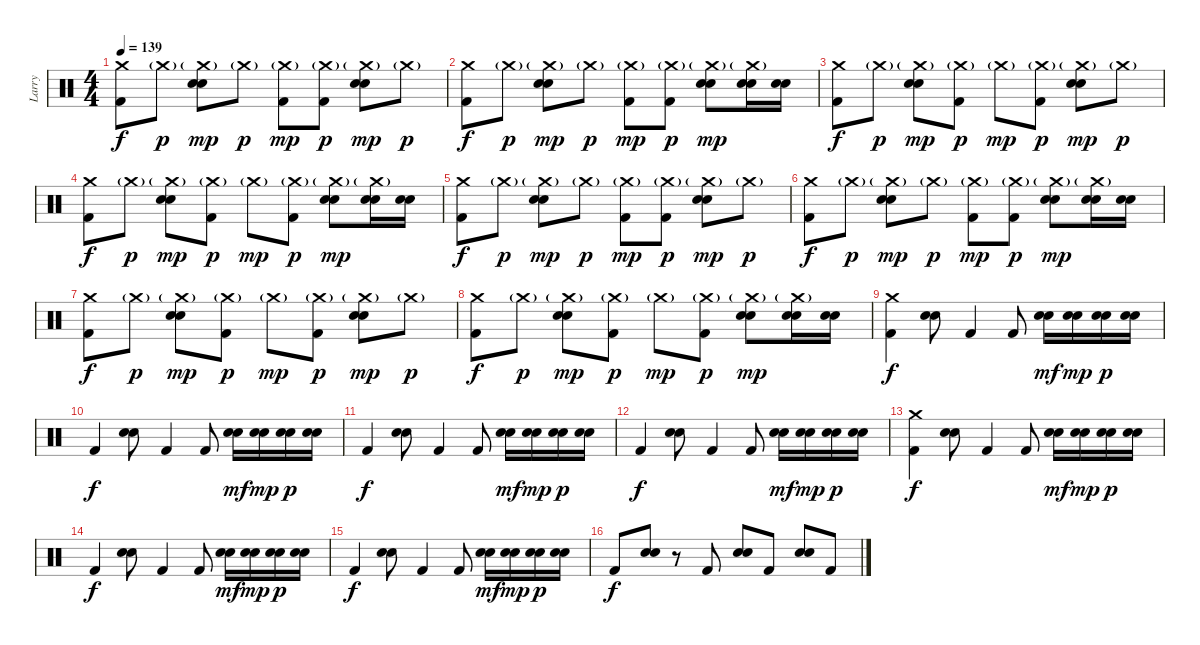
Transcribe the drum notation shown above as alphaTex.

\track ("Larry" "Larry") {instrument percussion}
\staff {score}
\articulation defaults
\ts (4 4)
\tempo 139
\clef neutral
\ks c
("Crash medium (hit)" "Kick (hit) 2").8{dy f} "Crash medium (hit)"{g}.8{dy p} ("Crash medium (hit)"{g} "Snare (hit) 2" "Electric Snare (hit)").8{dy mp} "Crash medium (hit)"{g}.8{dy p} ("Crash medium (hit)"{g} "Kick (hit) 2").8{dy mp} ("Crash medium (hit)"{g} "Kick (hit) 2").8{dy p} ("Crash medium (hit)"{g} "Snare (hit) 2" "Electric Snare (hit)").8{dy mp} "Crash medium (hit)"{g}.8{dy p} |
("Crash medium (hit)" "Kick (hit) 2").8{dy f} "Crash medium (hit)"{g}.8{dy p} ("Crash medium (hit)"{g} "Snare (hit) 2" "Electric Snare (hit)").8{dy mp} "Crash medium (hit)"{g}.8{dy p} ("Crash medium (hit)"{g} "Kick (hit) 2").8{dy mp} ("Crash medium (hit)"{g} "Kick (hit) 2").8{dy p} ("Crash medium (hit)"{g} "Snare (hit) 2" "Electric Snare (hit)").8{dy mp} ("Crash medium (hit)"{g} "Snare (hit) 2" "Electric Snare (hit)").16 ("Snare (hit) 2" "Electric Snare (hit)").16 |
("Crash medium (hit)" "Kick (hit) 2").8{dy f} "Crash medium (hit)"{g}.8{dy p} ("Crash medium (hit)"{g} "Snare (hit) 2" "Electric Snare (hit)").8{dy mp} ("Crash medium (hit)"{g} "Kick (hit) 2").8{dy p} "Crash medium (hit)"{g}.8{dy mp} ("Crash medium (hit)"{g} "Kick (hit) 2").8{dy p} ("Crash medium (hit)"{g} "Snare (hit) 2" "Electric Snare (hit)").8{dy mp} "Crash medium (hit)"{g}.8{dy p} |
("Crash medium (hit)" "Kick (hit) 2").8{dy f} "Crash medium (hit)"{g}.8{dy p} ("Crash medium (hit)"{g} "Snare (hit) 2" "Electric Snare (hit)").8{dy mp} ("Crash medium (hit)"{g} "Kick (hit) 2").8{dy p} "Crash medium (hit)"{g}.8{dy mp} ("Crash medium (hit)"{g} "Kick (hit) 2").8{dy p} ("Crash medium (hit)"{g} "Snare (hit) 2" "Electric Snare (hit)").8{dy mp} ("Crash medium (hit)"{g} "Snare (hit) 2" "Electric Snare (hit)").16 ("Snare (hit) 2" "Electric Snare (hit)").16 |
("Crash medium (hit)" "Kick (hit) 2").8{dy f} "Crash medium (hit)"{g}.8{dy p} ("Crash medium (hit)"{g} "Snare (hit) 2" "Electric Snare (hit)").8{dy mp} "Crash medium (hit)"{g}.8{dy p} ("Crash medium (hit)"{g} "Kick (hit) 2").8{dy mp} ("Crash medium (hit)"{g} "Kick (hit) 2").8{dy p} ("Crash medium (hit)"{g} "Snare (hit) 2" "Electric Snare (hit)").8{dy mp} "Crash medium (hit)"{g}.8{dy p} |
("Crash medium (hit)" "Kick (hit) 2").8{dy f} "Crash medium (hit)"{g}.8{dy p} ("Crash medium (hit)"{g} "Snare (hit) 2" "Electric Snare (hit)").8{dy mp} "Crash medium (hit)"{g}.8{dy p} ("Crash medium (hit)"{g} "Kick (hit) 2").8{dy mp} ("Crash medium (hit)"{g} "Kick (hit) 2").8{dy p} ("Crash medium (hit)"{g} "Snare (hit) 2" "Electric Snare (hit)").8{dy mp} ("Crash medium (hit)"{g} "Snare (hit) 2" "Electric Snare (hit)").16 ("Snare (hit) 2" "Electric Snare (hit)").16 |
("Crash medium (hit)" "Kick (hit) 2").8{dy f} "Crash medium (hit)"{g}.8{dy p} ("Crash medium (hit)"{g} "Snare (hit) 2" "Electric Snare (hit)").8{dy mp} ("Crash medium (hit)"{g} "Kick (hit) 2").8{dy p} "Crash medium (hit)"{g}.8{dy mp} ("Crash medium (hit)"{g} "Kick (hit) 2").8{dy p} ("Crash medium (hit)"{g} "Snare (hit) 2" "Electric Snare (hit)").8{dy mp} "Crash medium (hit)"{g}.8{dy p} |
("Crash medium (hit)" "Kick (hit) 2").8{dy f} "Crash medium (hit)"{g}.8{dy p} ("Crash medium (hit)"{g} "Snare (hit) 2" "Electric Snare (hit)").8{dy mp} ("Crash medium (hit)"{g} "Kick (hit) 2").8{dy p} "Crash medium (hit)"{g}.8{dy mp} ("Crash medium (hit)"{g} "Kick (hit) 2").8{dy p} ("Crash medium (hit)"{g} "Snare (hit) 2" "Electric Snare (hit)").8{dy mp} ("Crash medium (hit)"{g} "Snare (hit) 2" "Electric Snare (hit)").16 ("Snare (hit) 2" "Electric Snare (hit)").16 |
("Crash medium (hit)" "Kick (hit) 2").4{dy f} ("Snare (hit) 2" "Electric Snare (hit)").8 "Kick (hit) 2".4 "Kick (hit) 2".8 ("Snare (hit) 2" "Electric Snare (hit)").16{dy mf} ("Snare (hit) 2" "Electric Snare (hit)").16{dy mp} ("Snare (hit) 2" "Electric Snare (hit)").16{dy p} ("Snare (hit) 2" "Electric Snare (hit)").16 |
"Kick (hit) 2".4{dy f} ("Snare (hit) 2" "Electric Snare (hit)").8 "Kick (hit) 2".4 "Kick (hit) 2".8 ("Snare (hit) 2" "Electric Snare (hit)").16{dy mf} ("Snare (hit) 2" "Electric Snare (hit)").16{dy mp} ("Snare (hit) 2" "Electric Snare (hit)").16{dy p} ("Snare (hit) 2" "Electric Snare (hit)").16 |
"Kick (hit) 2".4{dy f} ("Snare (hit) 2" "Electric Snare (hit)").8 "Kick (hit) 2".4 "Kick (hit) 2".8 ("Snare (hit) 2" "Electric Snare (hit)").16{dy mf} ("Snare (hit) 2" "Electric Snare (hit)").16{dy mp} ("Snare (hit) 2" "Electric Snare (hit)").16{dy p} ("Snare (hit) 2" "Electric Snare (hit)").16 |
"Kick (hit) 2".4{dy f} ("Snare (hit) 2" "Electric Snare (hit)").8 "Kick (hit) 2".4 "Kick (hit) 2".8 ("Snare (hit) 2" "Electric Snare (hit)").16{dy mf} ("Snare (hit) 2" "Electric Snare (hit)").16{dy mp} ("Snare (hit) 2" "Electric Snare (hit)").16{dy p} ("Snare (hit) 2" "Electric Snare (hit)").16 |
("Crash medium (hit)" "Kick (hit) 2").4{dy f} ("Snare (hit) 2" "Electric Snare (hit)").8 "Kick (hit) 2".4 "Kick (hit) 2".8 ("Snare (hit) 2" "Electric Snare (hit)").16{dy mf} ("Snare (hit) 2" "Electric Snare (hit)").16{dy mp} ("Snare (hit) 2" "Electric Snare (hit)").16{dy p} ("Snare (hit) 2" "Electric Snare (hit)").16 |
"Kick (hit) 2".4{dy f} ("Snare (hit) 2" "Electric Snare (hit)").8 "Kick (hit) 2".4 "Kick (hit) 2".8 ("Snare (hit) 2" "Electric Snare (hit)").16{dy mf} ("Snare (hit) 2" "Electric Snare (hit)").16{dy mp} ("Snare (hit) 2" "Electric Snare (hit)").16{dy p} ("Snare (hit) 2" "Electric Snare (hit)").16 |
"Kick (hit) 2".4{dy f} ("Snare (hit) 2" "Electric Snare (hit)").8 "Kick (hit) 2".4 "Kick (hit) 2".8 ("Snare (hit) 2" "Electric Snare (hit)").16{dy mf} ("Snare (hit) 2" "Electric Snare (hit)").16{dy mp} ("Snare (hit) 2" "Electric Snare (hit)").16{dy p} ("Snare (hit) 2" "Electric Snare (hit)").16 |
"Kick (hit) 2".8{dy f} ("Snare (hit) 2" "Electric Snare (hit)").8 r.8 "Kick (hit) 2".8 ("Snare (hit) 2" "Electric Snare (hit)").8 "Kick (hit) 2".8 ("Snare (hit) 2" "Electric Snare (hit)").8 "Kick (hit) 2".8
